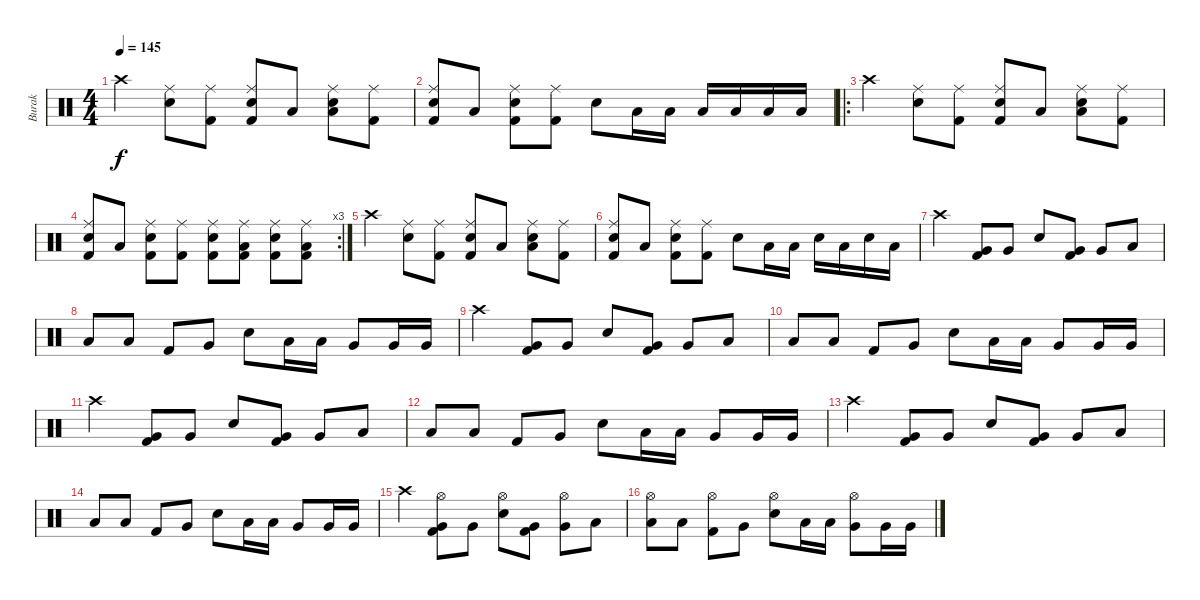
\track ("Burak" "Burak") {instrument percussion}
\staff {score}
\articulation defaults
\ts (4 4)
\tempo 145
\clef neutral
\ks c "Crash high (hit)".4{dy f}
("Electric Snare (hit)" "Ride (middle)").8 ("Kick (hit) 2" "Ride (middle)").8 ("Electric Snare (hit)" "Kick (hit) 2" "Ride (middle)").8 "Low Tom (hit)".8 ("Electric Snare (hit)" "Low Floor Tom (hit)" "Ride (middle)").8 ("Kick (hit) 2" "Ride (middle)").8 |
("Electric Snare (hit)" "Kick (hit) 2" "Ride (middle)").8 "Low Tom (hit)".8 ("Electric Snare (hit)" "Kick (hit) 2" "Ride (middle)").8 ("Kick (hit) 2" "Ride (middle)").8 "Electric Snare (hit)".8 "Low Tom (hit)".16 "Low Tom (hit)".16 "Low Tom (hit)".16 "Low Tom (hit)".16 "Low Tom (hit)".16 "Low Tom (hit)".16 |
\ro "Crash high (hit)".4
("Electric Snare (hit)" "Ride (middle)").8 ("Kick (hit) 2" "Ride (middle)").8 ("Electric Snare (hit)" "Kick (hit) 2" "Ride (middle)").8 "Low Tom (hit)".8 ("Electric Snare (hit)" "Low Floor Tom (hit)" "Ride (middle)").8 ("Kick (hit) 2" "Ride (middle)").8 |
\rc 3
("Electric Snare (hit)" "Kick (hit) 2" "Ride (middle)").8 "Low Tom (hit)".8 ("Electric Snare (hit)" "Kick (hit) 2" "Ride (middle)").8 ("Kick (hit) 2" "Ride (middle)").8 ("Electric Snare (hit)" "Kick (hit) 2" "Ride (middle)").8 ("Low Tom (hit)" "Kick (hit) 2" "Ride (middle)").8 ("Electric Snare (hit)" "Kick (hit) 2" "Ride (middle)").8 ("Low Tom (hit)" "Kick (hit) 2" "Ride (middle)").8 |
"Crash high (hit)".4 ("Electric Snare (hit)" "Ride (middle)").8 ("Kick (hit) 2" "Ride (middle)").8 ("Electric Snare (hit)" "Kick (hit) 2" "Ride (middle)").8 "Low Tom (hit)".8 ("Electric Snare (hit)" "Low Floor Tom (hit)" "Ride (middle)").8 ("Kick (hit) 2" "Ride (middle)").8 |
("Electric Snare (hit)" "Kick (hit) 2" "Ride (middle)").8 "Low Tom (hit)".8 ("Electric Snare (hit)" "Kick (hit) 2" "Ride (middle)").8 ("Kick (hit) 2" "Ride (middle)").8 "Electric Snare (hit)".8 "Low Tom (hit)".16 "Low Tom (hit)".16 "Electric Snare (hit)".16 "Low Tom (hit)".16 "Electric Snare (hit)".16 "Low Tom (hit)".16 |
"Crash high (hit)".4 ("Very Low Tom (hit)" "Kick (hit) 2").8 "Very Low Tom (hit)".8 "Electric Snare (hit)".8 ("Very Low Tom (hit)" "Kick (hit) 2").8 "Very Low Tom (hit)".8 "Low Tom (hit)".8 |
"Low Tom (hit)".8 "Low Tom (hit)".8 "Kick (hit) 2".8 "Very Low Tom (hit)".8 "Electric Snare (hit)".8 "Low Tom (hit)".16 "Low Tom (hit)".16 "Very Low Tom (hit)".8 "Very Low Tom (hit)".16 "Very Low Tom (hit)".16 |
"Crash high (hit)".4 ("Very Low Tom (hit)" "Kick (hit) 2").8 "Very Low Tom (hit)".8 "Electric Snare (hit)".8 ("Very Low Tom (hit)" "Kick (hit) 2").8 "Very Low Tom (hit)".8 "Low Tom (hit)".8 |
"Low Tom (hit)".8 "Low Tom (hit)".8 "Kick (hit) 2".8 "Very Low Tom (hit)".8 "Electric Snare (hit)".8 "Low Tom (hit)".16 "Low Tom (hit)".16 "Very Low Tom (hit)".8 "Very Low Tom (hit)".16 "Very Low Tom (hit)".16 |
"Crash high (hit)".4 ("Very Low Tom (hit)" "Kick (hit) 2").8 "Very Low Tom (hit)".8 "Electric Snare (hit)".8 ("Very Low Tom (hit)" "Kick (hit) 2").8 "Very Low Tom (hit)".8 "Low Tom (hit)".8 |
"Low Tom (hit)".8 "Low Tom (hit)".8 "Kick (hit) 2".8 "Very Low Tom (hit)".8 "Electric Snare (hit)".8 "Low Tom (hit)".16 "Low Tom (hit)".16 "Very Low Tom (hit)".8 "Very Low Tom (hit)".16 "Very Low Tom (hit)".16 |
"Crash high (hit)".4 ("Very Low Tom (hit)" "Kick (hit) 2").8 "Very Low Tom (hit)".8 "Electric Snare (hit)".8 ("Very Low Tom (hit)" "Kick (hit) 2").8 "Very Low Tom (hit)".8 "Low Tom (hit)".8 |
"Low Tom (hit)".8 "Low Tom (hit)".8 "Kick (hit) 2".8 "Very Low Tom (hit)".8 "Electric Snare (hit)".8 "Low Tom (hit)".16 "Low Tom (hit)".16 "Very Low Tom (hit)".8 "Very Low Tom (hit)".16 "Very Low Tom (hit)".16 |
"Crash high (hit)".4 ("Hi-Hat (open)" "Very Low Tom (hit)" "Kick (hit) 2").8 "Very Low Tom (hit)".8 ("Electric Snare (hit)" "Hi-Hat (open)").8 ("Very Low Tom (hit)" "Kick (hit) 2").8 ("Hi-Hat (open)" "Very Low Tom (hit)").8 "Low Tom (hit)".8 |
("Hi-Hat (open)" "Low Tom (hit)").8 "Low Tom (hit)".8 ("Hi-Hat (open)" "Kick (hit) 2").8 "Very Low Tom (hit)".8 ("Hi-Hat (open)" "Electric Snare (hit)").8 "Low Tom (hit)".16 "Low Tom (hit)".16 ("Hi-Hat (open)" "Very Low Tom (hit)").8 "Very Low Tom (hit)".16 "Very Low Tom (hit)".16
